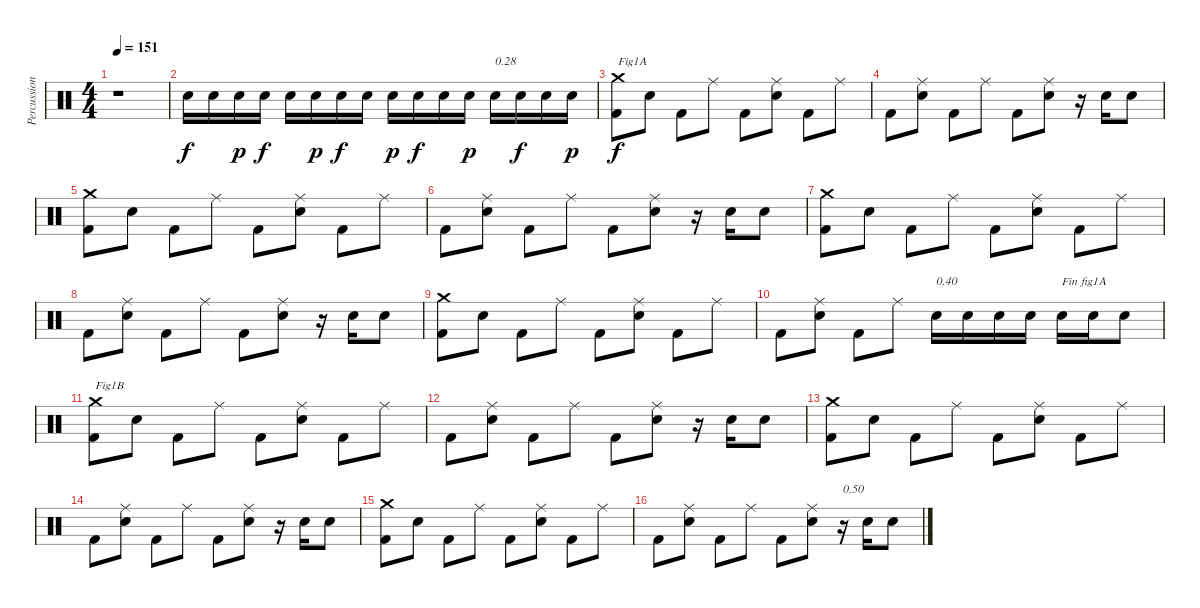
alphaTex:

\track ("Percussions" "Percussion") {instrument percussion}
\staff {score}
\articulation defaults
\ts (4 4)
\tempo 151
\clef neutral
\ks c
r.1{dy f} |
"Electric Snare (hit)".16 "Electric Snare (hit)".16 "Electric Snare (hit)".16{dy p} "Electric Snare (hit)".16{dy f} "Electric Snare (hit)".16 "Electric Snare (hit)".16{dy p} "Electric Snare (hit)".16{dy f} "Electric Snare (hit)".16 "Electric Snare (hit)".16{dy p} "Electric Snare (hit)".16{dy f} "Electric Snare (hit)".16 "Electric Snare (hit)".16{dy p} "Electric Snare (hit)".16{txt "0.28"} "Electric Snare (hit)".16{dy f} "Electric Snare (hit)".16 "Electric Snare (hit)".16{dy p} |
("Kick (hit) 2" "Crash medium (hit)").8{txt "Fig1A" dy f} "Electric Snare (hit)".8 "Kick (hit) 2".8 "Ride (middle)".8 "Kick (hit) 2".8 ("Electric Snare (hit)" "Ride (middle)").8 "Kick (hit) 2".8 "Ride (middle)".8 |
"Kick (hit) 2".8 ("Electric Snare (hit)" "Ride (middle)").8 "Kick (hit) 2".8 "Ride (middle)".8 "Kick (hit) 2".8 ("Electric Snare (hit)" "Ride (middle)").8 r.16 "Electric Snare (hit)".16 "Electric Snare (hit)".8 |
("Kick (hit) 2" "Crash medium (hit)").8 "Electric Snare (hit)".8 "Kick (hit) 2".8 "Ride (middle)".8 "Kick (hit) 2".8 ("Electric Snare (hit)" "Ride (middle)").8 "Kick (hit) 2".8 "Ride (middle)".8 |
"Kick (hit) 2".8 ("Electric Snare (hit)" "Ride (middle)").8 "Kick (hit) 2".8 "Ride (middle)".8 "Kick (hit) 2".8 ("Electric Snare (hit)" "Ride (middle)").8 r.16 "Electric Snare (hit)".16 "Electric Snare (hit)".8 |
("Kick (hit) 2" "Crash medium (hit)").8 "Electric Snare (hit)".8 "Kick (hit) 2".8 "Ride (middle)".8 "Kick (hit) 2".8 ("Electric Snare (hit)" "Ride (middle)").8 "Kick (hit) 2".8 "Ride (middle)".8 |
"Kick (hit) 2".8 ("Electric Snare (hit)" "Ride (middle)").8 "Kick (hit) 2".8 "Ride (middle)".8 "Kick (hit) 2".8 ("Electric Snare (hit)" "Ride (middle)").8 r.16 "Electric Snare (hit)".16 "Electric Snare (hit)".8 |
("Kick (hit) 2" "Crash medium (hit)").8 "Electric Snare (hit)".8 "Kick (hit) 2".8 "Ride (middle)".8 "Kick (hit) 2".8 ("Electric Snare (hit)" "Ride (middle)").8 "Kick (hit) 2".8 "Ride (middle)".8 |
"Kick (hit) 2".8 ("Electric Snare (hit)" "Ride (middle)").8 "Kick (hit) 2".8 "Ride (middle)".8 "Electric Snare (hit)".16{txt "0.40"} "Electric Snare (hit)".16 "Electric Snare (hit)".16 "Electric Snare (hit)".16 "Electric Snare (hit)".16{txt "Fin fig1A"} "Electric Snare (hit)".16 "Electric Snare (hit)".8 |
("Kick (hit) 2" "Crash medium (hit)").8{txt "Fig1B"} "Electric Snare (hit)".8 "Kick (hit) 2".8 "Ride (middle)".8 "Kick (hit) 2".8 ("Electric Snare (hit)" "Ride (middle)").8 "Kick (hit) 2".8 "Ride (middle)".8 |
"Kick (hit) 2".8 ("Electric Snare (hit)" "Ride (middle)").8 "Kick (hit) 2".8 "Ride (middle)".8 "Kick (hit) 2".8 ("Electric Snare (hit)" "Ride (middle)").8 r.16 "Electric Snare (hit)".16 "Electric Snare (hit)".8 |
("Kick (hit) 2" "Crash medium (hit)").8 "Electric Snare (hit)".8 "Kick (hit) 2".8 "Ride (middle)".8 "Kick (hit) 2".8 ("Electric Snare (hit)" "Ride (middle)").8 "Kick (hit) 2".8 "Ride (middle)".8 |
"Kick (hit) 2".8 ("Electric Snare (hit)" "Ride (middle)").8 "Kick (hit) 2".8 "Ride (middle)".8 "Kick (hit) 2".8 ("Electric Snare (hit)" "Ride (middle)").8 r.16 "Electric Snare (hit)".16 "Electric Snare (hit)".8 |
("Kick (hit) 2" "Crash medium (hit)").8 "Electric Snare (hit)".8 "Kick (hit) 2".8 "Ride (middle)".8 "Kick (hit) 2".8 ("Electric Snare (hit)" "Ride (middle)").8 "Kick (hit) 2".8 "Ride (middle)".8 |
"Kick (hit) 2".8 ("Electric Snare (hit)" "Ride (middle)").8 "Kick (hit) 2".8 "Ride (middle)".8 "Kick (hit) 2".8 ("Electric Snare (hit)" "Ride (middle)").8 r.16{txt "0.50"} "Electric Snare (hit)".16 "Electric Snare (hit)".8
